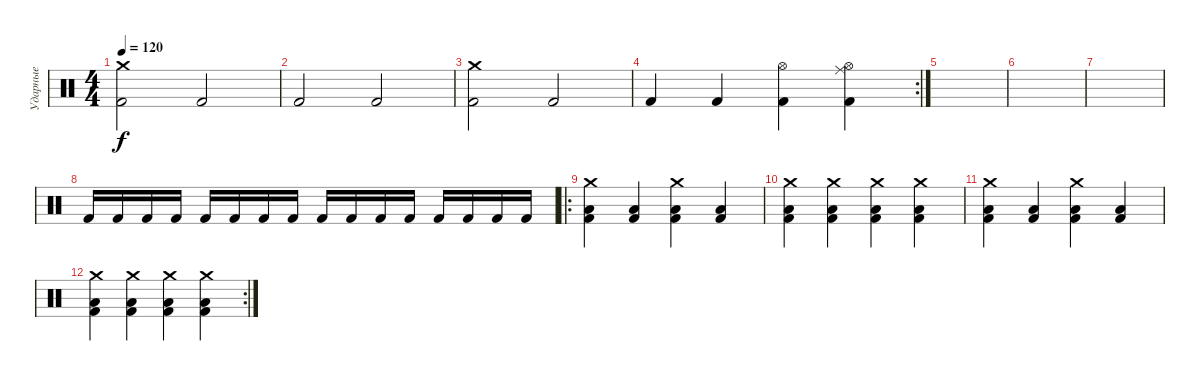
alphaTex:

\track ("Ударные" "Ударные") {instrument percussion}
\staff {score}
\articulation defaults
\ts (4 4)
\tempo 120
\clef neutral
\ks c
("Crash medium (hit)" "Kick (hit) 2").2{dy f} "Kick (hit) 2".2 |
"Kick (hit) 2".2 "Kick (hit) 2".2 |
("Crash medium (hit)" "Kick (hit) 2").2 "Kick (hit) 2".2 |
\rc 2 "Kick (hit) 2".4 "Kick (hit) 2".4
("Hi-Hat (open)" "Kick (hit) 2").4 ("Ride (middle)" "Kick (hit) 2" "Hi-Hat (open)").4 |
|
|
|
"Kick (hit) 2".16 "Kick (hit) 2".16 "Kick (hit) 2".16 "Kick (hit) 2".16 "Kick (hit) 2".16 "Kick (hit) 2".16 "Kick (hit) 2".16 "Kick (hit) 2".16 "Kick (hit) 2".16 "Kick (hit) 2".16 "Kick (hit) 2".16 "Kick (hit) 2".16 "Kick (hit) 2".16 "Kick (hit) 2".16 "Kick (hit) 2".16 "Kick (hit) 2".16 |
\ro
("Crash medium (hit)" "Low Tom (hit)" "Kick (hit) 2").4 ("Low Tom (hit)" "Kick (hit) 2").4 ("Crash medium (hit)" "Low Tom (hit)" "Kick (hit) 2").4 ("Low Tom (hit)" "Kick (hit) 2").4 |
("Crash medium (hit)" "Low Tom (hit)" "Kick (hit) 2").4 ("Crash medium (hit)" "Low Tom (hit)" "Kick (hit) 2").4 ("Crash medium (hit)" "Low Tom (hit)" "Kick (hit) 2").4 ("Crash medium (hit)" "Low Tom (hit)" "Kick (hit) 2").4 |
("Crash medium (hit)" "Low Tom (hit)" "Kick (hit) 2").4 ("Low Tom (hit)" "Kick (hit) 2").4 ("Crash medium (hit)" "Low Tom (hit)" "Kick (hit) 2").4 ("Low Tom (hit)" "Kick (hit) 2").4 |
\rc 2
("Crash medium (hit)" "Low Tom (hit)" "Kick (hit) 2").4 ("Crash medium (hit)" "Low Tom (hit)" "Kick (hit) 2").4 ("Crash medium (hit)" "Low Tom (hit)" "Kick (hit) 2").4 ("Crash medium (hit)" "Low Tom (hit)" "Kick (hit) 2").4
